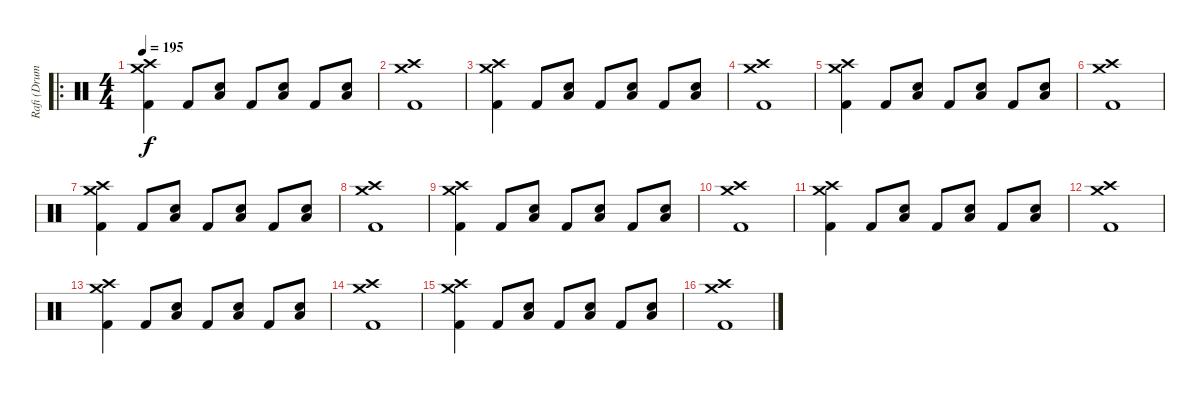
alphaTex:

\track ("Rafi (Drums)" "Rafi (Drum") {instrument percussion}
\staff {score}
\articulation defaults
\ro
\ts (4 4)
\tempo 195
\clef neutral
\ks c
("Crash medium (hit)" "Crash high (hit)" "Kick (hit) 2").4{dy f} "Kick (hit) 2".8 ("Low Floor Tom (hit)" "Snare (hit) 2").8 "Kick (hit) 2".8 ("Low Floor Tom (hit)" "Snare (hit) 2").8 "Kick (hit) 2".8 ("Low Floor Tom (hit)" "Snare (hit) 2").8 |
("Crash medium (hit)" "Crash high (hit)" "Kick (hit) 2").1 |
("Crash medium (hit)" "Crash high (hit)" "Kick (hit) 2").4 "Kick (hit) 2".8 ("Low Floor Tom (hit)" "Snare (hit) 2").8 "Kick (hit) 2".8 ("Low Floor Tom (hit)" "Snare (hit) 2").8 "Kick (hit) 2".8 ("Low Floor Tom (hit)" "Snare (hit) 2").8 |
("Crash medium (hit)" "Crash high (hit)" "Kick (hit) 2").1 |
("Crash medium (hit)" "Crash high (hit)" "Kick (hit) 2").4 "Kick (hit) 2".8 ("Low Floor Tom (hit)" "Snare (hit) 2").8 "Kick (hit) 2".8 ("Low Floor Tom (hit)" "Snare (hit) 2").8 "Kick (hit) 2".8 ("Low Floor Tom (hit)" "Snare (hit) 2").8 |
("Crash medium (hit)" "Crash high (hit)" "Kick (hit) 2").1 |
("Crash medium (hit)" "Crash high (hit)" "Kick (hit) 2").4 "Kick (hit) 2".8 ("Low Floor Tom (hit)" "Snare (hit) 2").8 "Kick (hit) 2".8 ("Low Floor Tom (hit)" "Snare (hit) 2").8 "Kick (hit) 2".8 ("Low Floor Tom (hit)" "Snare (hit) 2").8 |
("Crash medium (hit)" "Crash high (hit)" "Kick (hit) 2").1 |
("Crash medium (hit)" "Crash high (hit)" "Kick (hit) 2").4 "Kick (hit) 2".8 ("Low Floor Tom (hit)" "Snare (hit) 2").8 "Kick (hit) 2".8 ("Low Floor Tom (hit)" "Snare (hit) 2").8 "Kick (hit) 2".8 ("Low Floor Tom (hit)" "Snare (hit) 2").8 |
("Crash medium (hit)" "Crash high (hit)" "Kick (hit) 2").1 |
("Crash medium (hit)" "Crash high (hit)" "Kick (hit) 2").4 "Kick (hit) 2".8 ("Low Floor Tom (hit)" "Snare (hit) 2").8 "Kick (hit) 2".8 ("Low Floor Tom (hit)" "Snare (hit) 2").8 "Kick (hit) 2".8 ("Low Floor Tom (hit)" "Snare (hit) 2").8 |
("Crash medium (hit)" "Crash high (hit)" "Kick (hit) 2").1 |
("Crash medium (hit)" "Crash high (hit)" "Kick (hit) 2").4 "Kick (hit) 2".8 ("Low Floor Tom (hit)" "Snare (hit) 2").8 "Kick (hit) 2".8 ("Low Floor Tom (hit)" "Snare (hit) 2").8 "Kick (hit) 2".8 ("Low Floor Tom (hit)" "Snare (hit) 2").8 |
("Crash medium (hit)" "Crash high (hit)" "Kick (hit) 2").1 |
("Crash medium (hit)" "Crash high (hit)" "Kick (hit) 2").4 "Kick (hit) 2".8 ("Low Floor Tom (hit)" "Snare (hit) 2").8 "Kick (hit) 2".8 ("Low Floor Tom (hit)" "Snare (hit) 2").8 "Kick (hit) 2".8 ("Low Floor Tom (hit)" "Snare (hit) 2").8 |
("Crash medium (hit)" "Crash high (hit)" "Kick (hit) 2").1
